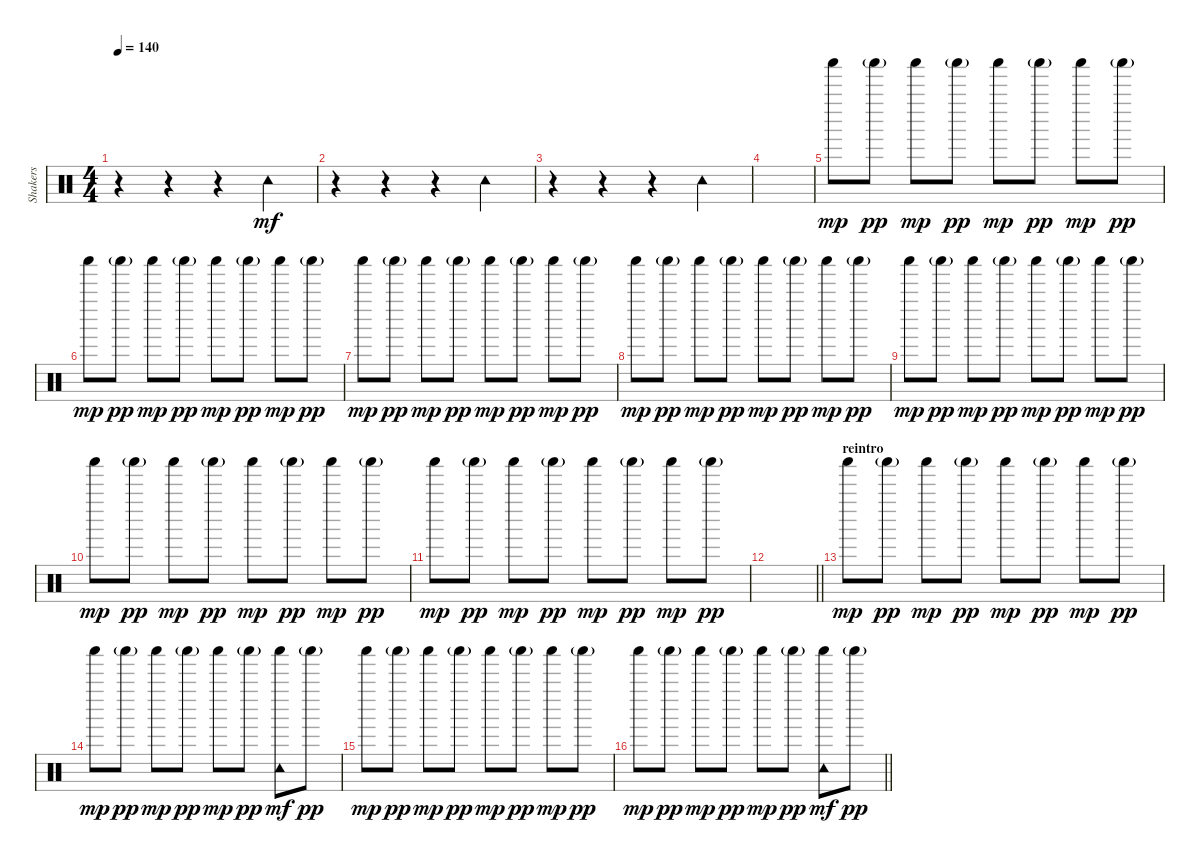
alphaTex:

\track ("Shakers" "Shakers") {instrument percussion}
\staff {score}
\articulation defaults
\ts (4 4)
\tempo 140
\clef neutral
\ks c
r.4{dy mf} r.4 r.4 "Tambourine (hit)".4 |
r.4 r.4 r.4 "Tambourine (hit)".4 |
r.4 r.4 r.4 "Tambourine (hit)".4 |
|
"Shaker (hit)".8{dy mp} "Shaker (hit)"{g}.8{dy pp} "Shaker (hit)".8{dy mp} "Shaker (hit)"{g}.8{dy pp} "Shaker (hit)".8{dy mp} "Shaker (hit)"{g}.8{dy pp} "Shaker (hit)".8{dy mp} "Shaker (hit)"{g}.8{dy pp} |
"Shaker (hit)".8{dy mp} "Shaker (hit)"{g}.8{dy pp} "Shaker (hit)".8{dy mp} "Shaker (hit)"{g}.8{dy pp} "Shaker (hit)".8{dy mp} "Shaker (hit)"{g}.8{dy pp} "Shaker (hit)".8{dy mp} "Shaker (hit)"{g}.8{dy pp} |
"Shaker (hit)".8{dy mp} "Shaker (hit)"{g}.8{dy pp} "Shaker (hit)".8{dy mp} "Shaker (hit)"{g}.8{dy pp} "Shaker (hit)".8{dy mp} "Shaker (hit)"{g}.8{dy pp} "Shaker (hit)".8{dy mp} "Shaker (hit)"{g}.8{dy pp} |
"Shaker (hit)".8{dy mp} "Shaker (hit)"{g}.8{dy pp} "Shaker (hit)".8{dy mp} "Shaker (hit)"{g}.8{dy pp} "Shaker (hit)".8{dy mp} "Shaker (hit)"{g}.8{dy pp} "Shaker (hit)".8{dy mp} "Shaker (hit)"{g}.8{dy pp} |
"Shaker (hit)".8{dy mp} "Shaker (hit)"{g}.8{dy pp} "Shaker (hit)".8{dy mp} "Shaker (hit)"{g}.8{dy pp} "Shaker (hit)".8{dy mp} "Shaker (hit)"{g}.8{dy pp} "Shaker (hit)".8{dy mp} "Shaker (hit)"{g}.8{dy pp} |
"Shaker (hit)".8{dy mp} "Shaker (hit)"{g}.8{dy pp} "Shaker (hit)".8{dy mp} "Shaker (hit)"{g}.8{dy pp} "Shaker (hit)".8{dy mp} "Shaker (hit)"{g}.8{dy pp} "Shaker (hit)".8{dy mp} "Shaker (hit)"{g}.8{dy pp} |
"Shaker (hit)".8{dy mp} "Shaker (hit)"{g}.8{dy pp} "Shaker (hit)".8{dy mp} "Shaker (hit)"{g}.8{dy pp} "Shaker (hit)".8{dy mp} "Shaker (hit)"{g}.8{dy pp} "Shaker (hit)".8{dy mp} "Shaker (hit)"{g}.8{dy pp} |
\barLineRight lightlight
|
\section ("" "reintro")
"Shaker (hit)".8{dy mp} "Shaker (hit)"{g}.8{dy pp} "Shaker (hit)".8{dy mp} "Shaker (hit)"{g}.8{dy pp} "Shaker (hit)".8{dy mp} "Shaker (hit)"{g}.8{dy pp} "Shaker (hit)".8{dy mp} "Shaker (hit)"{g}.8{dy pp} |
"Shaker (hit)".8{dy mp} "Shaker (hit)"{g}.8{dy pp} "Shaker (hit)".8{dy mp} "Shaker (hit)"{g}.8{dy pp} "Shaker (hit)".8{dy mp} "Shaker (hit)"{g}.8{dy pp} ("Shaker (hit)" "Tambourine (hit)").8{dy mf} "Shaker (hit)"{g}.8{dy pp} |
"Shaker (hit)".8{dy mp} "Shaker (hit)"{g}.8{dy pp} "Shaker (hit)".8{dy mp} "Shaker (hit)"{g}.8{dy pp} "Shaker (hit)".8{dy mp} "Shaker (hit)"{g}.8{dy pp} "Shaker (hit)".8{dy mp} "Shaker (hit)"{g}.8{dy pp} |
\barLineRight lightlight "Shaker (hit)".8{dy mp} "Shaker (hit)"{g}.8{dy pp} "Shaker (hit)".8{dy mp} "Shaker (hit)"{g}.8{dy pp} "Shaker (hit)".8{dy mp} "Shaker (hit)"{g}.8{dy pp}
("Shaker (hit)" "Tambourine (hit)").8{dy mf} "Shaker (hit)"{g}.8{dy pp}
